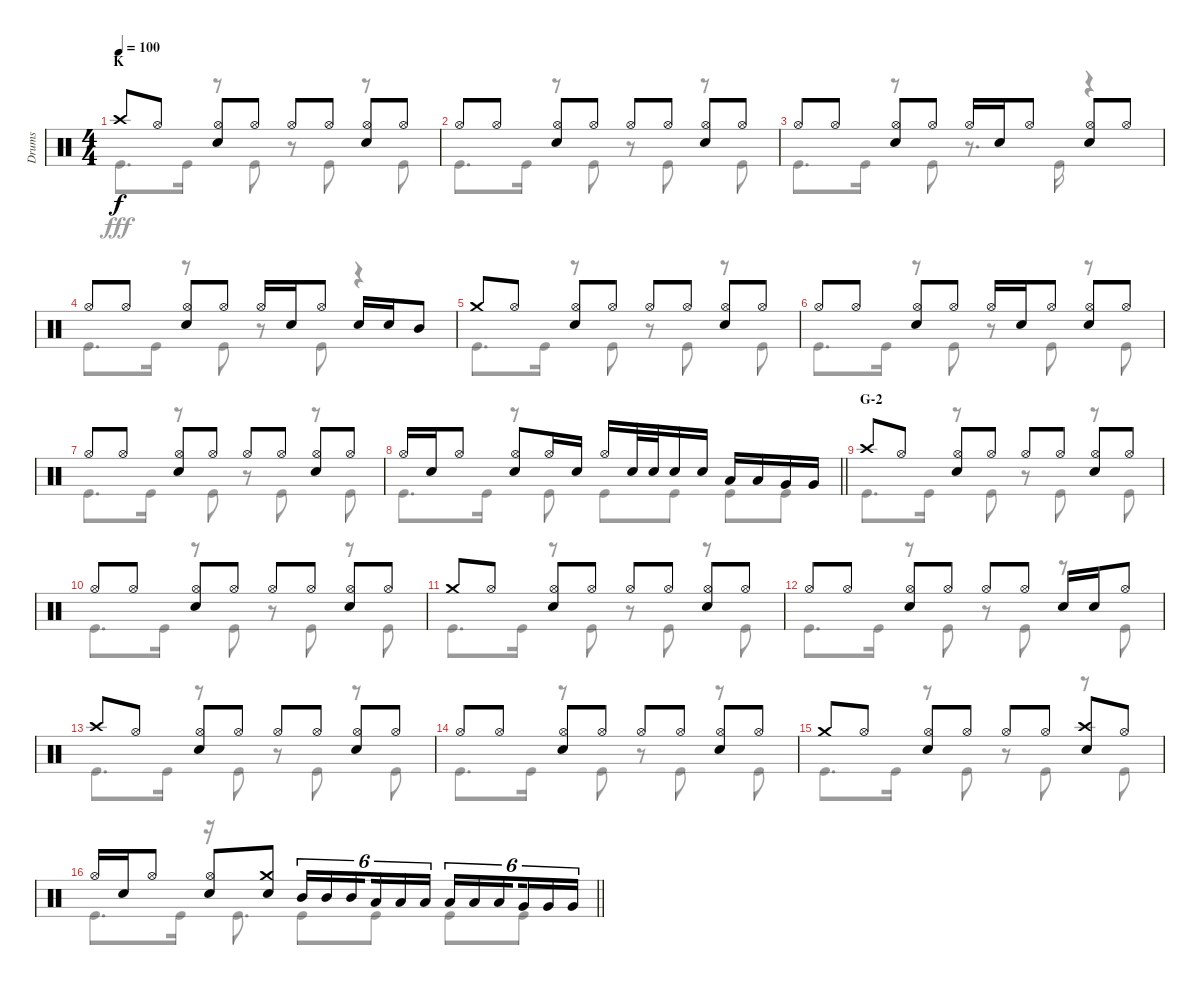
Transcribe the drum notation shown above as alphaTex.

\track ("Drums" "Drums") {instrument percussion}
\staff {score}
\articulation defaults
\voice
\ts (4 4)
\section ("" "K")
\tempo 100
\clef neutral
\ks c "Crash high (hit)".8{dy f} "Hi-Hat (open)".8
("Hi-Hat (open)" "Snare (hit) 2").8 "Hi-Hat (open)".8 "Hi-Hat (open)".8 "Hi-Hat (open)".8 ("Hi-Hat (open)" "Snare (hit) 2").8 "Hi-Hat (open)".8 |
"Hi-Hat (open)".8 "Hi-Hat (open)".8 ("Hi-Hat (open)" "Snare (hit) 2").8 "Hi-Hat (open)".8 "Hi-Hat (open)".8 "Hi-Hat (open)".8 ("Hi-Hat (open)" "Snare (hit) 2").8 "Hi-Hat (open)".8 |
"Hi-Hat (open)".8 "Hi-Hat (open)".8 ("Hi-Hat (open)" "Snare (hit) 2").8 "Hi-Hat (open)".8 "Hi-Hat (open)".16 "Snare (hit) 2".16 "Hi-Hat (open)".8 ("Hi-Hat (open)" "Snare (hit) 2").8 "Hi-Hat (open)".8 |
"Hi-Hat (open)".8 "Hi-Hat (open)".8 ("Hi-Hat (open)" "Snare (hit) 2").8 "Hi-Hat (open)".8 "Hi-Hat (open)".16 "Snare (hit) 2".16 "Hi-Hat (open)".8 "Snare (hit) 2".16 "Snare (hit) 2".16 "Mid Tom (hit)".8 |
"Crash medium (hit)".8 "Hi-Hat (open)".8 ("Hi-Hat (open)" "Snare (hit) 2").8 "Hi-Hat (open)".8 "Hi-Hat (open)".8 "Hi-Hat (open)".8 ("Hi-Hat (open)" "Snare (hit) 2").8 "Hi-Hat (open)".8 |
"Hi-Hat (open)".8 "Hi-Hat (open)".8 ("Hi-Hat (open)" "Snare (hit) 2").8 "Hi-Hat (open)".8 "Hi-Hat (open)".16 "Snare (hit) 2".16 "Hi-Hat (open)".8 ("Hi-Hat (open)" "Snare (hit) 2").8 "Hi-Hat (open)".8 |
"Hi-Hat (open)".8 "Hi-Hat (open)".8 ("Hi-Hat (open)" "Snare (hit) 2").8 "Hi-Hat (open)".8 "Hi-Hat (open)".8 "Hi-Hat (open)".8 ("Hi-Hat (open)" "Snare (hit) 2").8 "Hi-Hat (open)".8 |
\barLineRight lightlight "Hi-Hat (open)".16 "Snare (hit) 2".16 "Hi-Hat (open)".8
("Hi-Hat (open)" "Snare (hit) 2").8 "Hi-Hat (open)".16 "Snare (hit) 2".16 "Hi-Hat (open)".16 "Snare (hit) 2".32 "Snare (hit) 2".32 "Snare (hit) 2".16 "Snare (hit) 2".16 "Low Tom (hit)".16 "Low Tom (hit)".16 "Very Low Tom (hit)".16 "Very Low Tom (hit)".16 |
\section ("" "G-2")
"Crash high (hit)".8 "Hi-Hat (open)".8 ("Hi-Hat (open)" "Snare (hit) 2").8 "Hi-Hat (open)".8 "Hi-Hat (open)".8 "Hi-Hat (open)".8 ("Hi-Hat (open)" "Snare (hit) 2").8 "Hi-Hat (open)".8 |
"Hi-Hat (open)".8 "Hi-Hat (open)".8 ("Hi-Hat (open)" "Snare (hit) 2").8 "Hi-Hat (open)".8 "Hi-Hat (open)".8 "Hi-Hat (open)".8 ("Hi-Hat (open)" "Snare (hit) 2").8 "Hi-Hat (open)".8 |
"Crash medium (hit)".8 "Hi-Hat (open)".8 ("Hi-Hat (open)" "Snare (hit) 2").8 "Hi-Hat (open)".8 "Hi-Hat (open)".8 "Hi-Hat (open)".8 ("Hi-Hat (open)" "Snare (hit) 2").8 "Hi-Hat (open)".8 |
"Hi-Hat (open)".8 "Hi-Hat (open)".8 ("Hi-Hat (open)" "Snare (hit) 2").8 "Hi-Hat (open)".8 "Hi-Hat (open)".8 "Hi-Hat (open)".8 "Snare (hit) 2".16 "Snare (hit) 2".16 "Hi-Hat (open)".8 |
"Crash high (hit)".8 "Hi-Hat (open)".8 ("Hi-Hat (open)" "Snare (hit) 2").8 "Hi-Hat (open)".8 "Hi-Hat (open)".8 "Hi-Hat (open)".8 ("Hi-Hat (open)" "Snare (hit) 2").8 "Hi-Hat (open)".8 |
"Hi-Hat (open)".8 "Hi-Hat (open)".8 ("Hi-Hat (open)" "Snare (hit) 2").8 "Hi-Hat (open)".8 "Hi-Hat (open)".8 "Hi-Hat (open)".8 ("Hi-Hat (open)" "Snare (hit) 2").8 "Hi-Hat (open)".8 |
"Crash medium (hit)".8 "Hi-Hat (open)".8 ("Hi-Hat (open)" "Snare (hit) 2").8 "Hi-Hat (open)".8 "Hi-Hat (open)".8 "Hi-Hat (open)".8 ("Crash high (hit)" "Snare (hit) 2").8 "Hi-Hat (open)".8 |
\barLineRight lightlight "Hi-Hat (open)".16 "Snare (hit) 2".16 "Hi-Hat (open)".8
("Hi-Hat (open)" "Snare (hit) 2").8 ("Crash medium (hit)" "Snare (hit) 2").8 "Mid Tom (hit)".16{tu (6 4)} "Mid Tom (hit)".16{tu (6 4)} "Mid Tom (hit)".16{tu (6 4) beam splitsecondary} "Low Tom (hit)".16{tu (6 4)} "Low Tom (hit)".16{tu (6 4)} "Low Tom (hit)".16{tu (6 4)} "Low Tom (hit)".16{tu (6 4)} "Low Tom (hit)".16{tu (6 4)} "Low Tom (hit)".16{tu (6 4) beam splitsecondary} "Very Low Tom (hit)".16{tu (6 4)} "Very Low Tom (hit)".16{tu (6 4)} "Very Low Tom (hit)".16{tu (6 4)}
\voice
\clef neutral
\ottava regular
\simile none
\ks c "Kick (hit)".8{d dy fff} "Kick (hit)".16
r.8 "Kick (hit)".8 r.8 "Kick (hit)".8 r.8 "Kick (hit)".8 |
"Kick (hit)".8{d} "Kick (hit)".16 r.8 "Kick (hit)".8 r.8 "Kick (hit)".8 r.8 "Kick (hit)".8 |
"Kick (hit)".8{d} "Kick (hit)".16 r.8 "Kick (hit)".8 r.8{d} "Kick (hit)".16 r.4 |
"Kick (hit)".8{d} "Kick (hit)".16 r.8 "Kick (hit)".8 r.8 "Kick (hit)".8 r.4 |
"Kick (hit)".8{d} "Kick (hit)".16 r.8 "Kick (hit)".8 r.8 "Kick (hit)".8 r.8 "Kick (hit)".8 |
"Kick (hit)".8{d} "Kick (hit)".16 r.8 "Kick (hit)".8 r.8 "Kick (hit)".8 r.8 "Kick (hit)".8 |
"Kick (hit)".8{d} "Kick (hit)".16 r.8 "Kick (hit)".8 r.8 "Kick (hit)".8 r.8 "Kick (hit)".8 |
\barLineRight lightlight "Kick (hit)".8{d} "Kick (hit)".16
r.8 "Kick (hit)".8 "Kick (hit)".8 "Kick (hit)".8 "Kick (hit)".8 "Kick (hit)".8 |
"Kick (hit)".8{d} "Kick (hit)".16 r.8 "Kick (hit)".8 r.8 "Kick (hit)".8 r.8 "Kick (hit)".8 |
"Kick (hit)".8{d} "Kick (hit)".16 r.8 "Kick (hit)".8 r.8 "Kick (hit)".8 r.8 "Kick (hit)".8 |
"Kick (hit)".8{d} "Kick (hit)".16 r.8 "Kick (hit)".8 r.8 "Kick (hit)".8 r.8 "Kick (hit)".8 |
"Kick (hit)".8{d} "Kick (hit)".16 r.8 "Kick (hit)".8 r.8 "Kick (hit)".8 r.8 "Kick (hit)".8 |
"Kick (hit)".8{d} "Kick (hit)".16 r.8 "Kick (hit)".8 r.8 "Kick (hit)".8 r.8 "Kick (hit)".8 |
"Kick (hit)".8{d} "Kick (hit)".16 r.8 "Kick (hit)".8 r.8 "Kick (hit)".8 r.8 "Kick (hit)".8 |
"Kick (hit)".8{d} "Kick (hit)".16 r.8 "Kick (hit)".8 r.8 "Kick (hit)".8 r.8 "Kick (hit)".8 |
\barLineRight lightlight "Kick (hit)".8{d} "Kick (hit)".16
r.16 "Kick (hit)".8{d} "Kick (hit)".8 "Kick (hit)".8 "Kick (hit)".8 "Kick (hit)".8
